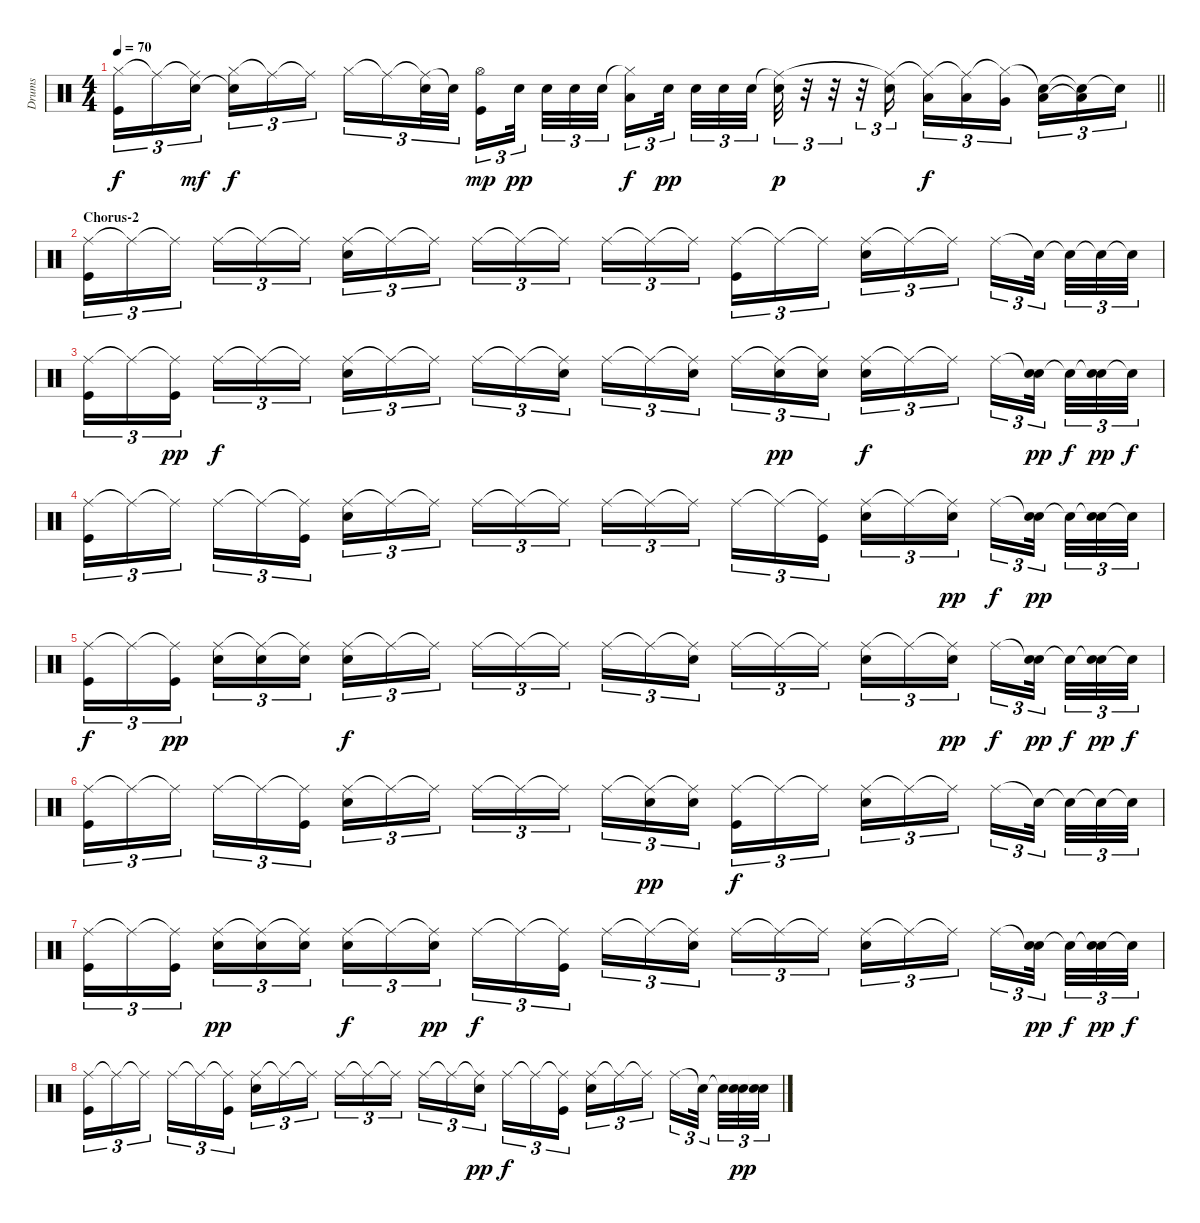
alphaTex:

\track ("Drums" "Drums") {instrument percussion}
\staff {score}
\articulation defaults
\ts (4 4)
\tempo 70
\clef neutral
\barLineRight lightlight
\ks c
("Hi-Hat (closed)" "Kick (hit)").16{tu (3 2) dy f} "Ride (middle)"{t}.16{tu (3 2)} ("Ride (middle)"{t} "Electric Snare (hit)").16{tu (3 2) dy mf} ("Hi-Hat (closed)" "Electric Snare (hit)"{t}).16{tu (3 2) dy f} "Ride (middle)"{t}.16{tu (3 2)} "Ride (middle)"{t}.16{tu (3 2)} "Hi-Hat (closed)".16{tu (3 2)} "Ride (middle)"{t}.16{tu (3 2)} ("Ride (middle)"{t} "Electric Snare (hit)").32{tu (3 2)} "Electric Snare (hit)"{t}.32{tu (3 2)} ("Hi-Hat (open)" "Kick (hit)").16{tu (3 2) dy mp} "Electric Snare (hit)".32{tu (3 2) dy pp} "Electric Snare (hit)".32{tu (3 2)} "Electric Snare (hit)".32{tu (3 2)} "Electric Snare (hit)".32{tu (3 2)} ("Hi-Hat (closed)"{t} "Low Tom (hit)").16{tu (3 2) dy f} "Electric Snare (hit)".32{tu (3 2) dy pp} "Electric Snare (hit)".32{tu (3 2)} "Electric Snare (hit)".32{tu (3 2)} "Electric Snare (hit)".32{tu (3 2)} ("Ride (middle)"{t} "Electric Snare (hit)").32{tu (3 2) dy p} r.32{tu (3 2)} r.32{tu (3 2)} r.32{tu (3 2)} ("Ride (middle)"{t} "Electric Snare (hit)").16{tu (3 2)} ("Ride (middle)"{t} "Low Tom (hit)").16{tu (3 2) dy f} ("Ride (middle)"{t} "Low Tom (hit)").16{tu (3 2)} ("Hi-Hat (closed)"{t} "Very Low Tom (hit)").16{tu (3 2)} ("Snare (hit)"{t} "Low Floor Tom (hit)").16{tu (3 2)} ("Snare (hit)"{t} "Low Tom (hit)"{t}).16{tu (3 2)} "Snare (hit)"{t}.16{tu (3 2)} |
\section ("" "Chorus-2")
("Ride (middle)" "Kick (hit)").16{tu (3 2)} "Ride (middle)"{t}.16{tu (3 2)} "Ride (middle)"{t}.16{tu (3 2)} "Ride (middle)".16{tu (3 2)} "Ride (middle)"{t}.16{tu (3 2)} "Ride (middle)"{t}.16{tu (3 2)} ("Ride (middle)" "Electric Snare (hit)").16{tu (3 2)} "Ride (middle)"{t}.16{tu (3 2)} "Ride (middle)"{t}.16{tu (3 2)} "Ride (middle)".16{tu (3 2)} "Ride (middle)"{t}.16{tu (3 2)} "Ride (middle)"{t}.16{tu (3 2)} "Ride (middle)".16{tu (3 2)} "Ride (middle)"{t}.16{tu (3 2)} "Ride (middle)"{t}.16{tu (3 2)} ("Ride (middle)" "Kick (hit)").16{tu (3 2)} "Ride (middle)"{t}.16{tu (3 2)} "Ride (middle)"{t}.16{tu (3 2)} ("Ride (middle)" "Electric Snare (hit)").16{tu (3 2)} "Ride (middle)"{t}.16{tu (3 2)} "Ride (middle)"{t}.16{tu (3 2)} "Ride (middle)".16{tu (3 2)} "Snare (hit)"{t}.32{tu (3 2)} "Snare (hit)"{t}.32{tu (3 2)} "Snare (hit)"{t}.32{tu (3 2)} "Snare (hit)"{t}.32{tu (3 2)} |
("Ride (middle)" "Kick (hit)").16{tu (3 2)} "Ride (middle)"{t}.16{tu (3 2)} ("Ride (middle)"{t} "Kick (hit)").16{tu (3 2) dy pp} "Ride (middle)".16{tu (3 2) dy f} "Ride (middle)"{t}.16{tu (3 2)} "Ride (middle)"{t}.16{tu (3 2)} ("Ride (middle)" "Electric Snare (hit)").16{tu (3 2)} "Ride (middle)"{t}.16{tu (3 2)} "Ride (middle)"{t}.16{tu (3 2)} "Ride (middle)".16{tu (3 2)} "Ride (middle)"{t}.16{tu (3 2)} ("Ride (middle)"{t} "Electric Snare (hit)").16{tu (3 2)} "Ride (middle)".16{tu (3 2)} "Ride (middle)"{t}.16{tu (3 2)} ("Ride (middle)"{t} "Electric Snare (hit)").16{tu (3 2)} "Ride (middle)".16{tu (3 2)} ("Ride (middle)"{t} "Electric Snare (hit)").16{tu (3 2) dy pp} ("Ride (middle)"{t} "Electric Snare (hit)").16{tu (3 2)} ("Ride (middle)" "Electric Snare (hit)").16{tu (3 2) dy f} "Ride (middle)"{t}.16{tu (3 2)} "Ride (middle)"{t}.16{tu (3 2)} "Ride (middle)".16{tu (3 2)} ("Snare (hit)"{t} "Electric Snare (hit)").32{tu (3 2) dy pp} "Snare (hit)"{t}.32{tu (3 2) dy f} ("Snare (hit)"{t} "Electric Snare (hit)").32{tu (3 2) dy pp} "Snare (hit)"{t}.32{tu (3 2) dy f} |
("Ride (middle)" "Kick (hit)").16{tu (3 2)} "Ride (middle)"{t}.16{tu (3 2)} "Ride (middle)"{t}.16{tu (3 2)} "Ride (middle)".16{tu (3 2)} "Ride (middle)"{t}.16{tu (3 2)} ("Ride (middle)"{t} "Kick (hit)").16{tu (3 2)} ("Ride (middle)" "Electric Snare (hit)").16{tu (3 2)} "Ride (middle)"{t}.16{tu (3 2)} "Ride (middle)"{t}.16{tu (3 2)} "Ride (middle)".16{tu (3 2)} "Ride (middle)"{t}.16{tu (3 2)} "Ride (middle)"{t}.16{tu (3 2)} "Ride (middle)".16{tu (3 2)} "Ride (middle)"{t}.16{tu (3 2)} "Ride (middle)"{t}.16{tu (3 2)} "Ride (middle)".16{tu (3 2)} "Ride (middle)"{t}.16{tu (3 2)} ("Ride (middle)"{t} "Kick (hit)").16{tu (3 2)} ("Ride (middle)" "Electric Snare (hit)").16{tu (3 2)} "Ride (middle)"{t}.16{tu (3 2)} ("Ride (middle)"{t} "Electric Snare (hit)").16{tu (3 2) dy pp} "Ride (middle)".16{tu (3 2) dy f} ("Snare (hit)"{t} "Electric Snare (hit)").32{tu (3 2) dy pp} "Snare (hit)"{t}.32{tu (3 2)} ("Snare (hit)"{t} "Electric Snare (hit)").32{tu (3 2)} "Snare (hit)"{t}.32{tu (3 2)} |
("Ride (middle)" "Kick (hit)").16{tu (3 2) dy f} "Ride (middle)"{t}.16{tu (3 2)} ("Ride (middle)"{t} "Kick (hit)").16{tu (3 2) dy pp} ("Ride (middle)" "Electric Snare (hit)").16{tu (3 2)} ("Ride (middle)"{t} "Electric Snare (hit)").16{tu (3 2)} ("Ride (middle)"{t} "Electric Snare (hit)").16{tu (3 2)} ("Ride (middle)" "Electric Snare (hit)").16{tu (3 2) dy f} "Ride (middle)"{t}.16{tu (3 2)} "Ride (middle)"{t}.16{tu (3 2)} "Ride (middle)".16{tu (3 2)} "Ride (middle)"{t}.16{tu (3 2)} "Ride (middle)"{t}.16{tu (3 2)} "Ride (middle)".16{tu (3 2)} "Ride (middle)"{t}.16{tu (3 2)} ("Ride (middle)"{t} "Electric Snare (hit)").16{tu (3 2)} "Ride (middle)".16{tu (3 2)} "Ride (middle)"{t}.16{tu (3 2)} "Ride (middle)"{t}.16{tu (3 2)} ("Ride (middle)" "Electric Snare (hit)").16{tu (3 2)} "Ride (middle)"{t}.16{tu (3 2)} ("Ride (middle)"{t} "Electric Snare (hit)").16{tu (3 2) dy pp} "Ride (middle)".16{tu (3 2) dy f} ("Snare (hit)"{t} "Electric Snare (hit)").32{tu (3 2) dy pp} "Snare (hit)"{t}.32{tu (3 2) dy f} ("Snare (hit)"{t} "Electric Snare (hit)").32{tu (3 2) dy pp} "Snare (hit)"{t}.32{tu (3 2) dy f} |
("Ride (middle)" "Kick (hit)").16{tu (3 2)} "Ride (middle)"{t}.16{tu (3 2)} "Ride (middle)"{t}.16{tu (3 2)} "Ride (middle)".16{tu (3 2)} "Ride (middle)"{t}.16{tu (3 2)} ("Ride (middle)"{t} "Kick (hit)").16{tu (3 2)} ("Ride (middle)" "Electric Snare (hit)").16{tu (3 2)} "Ride (middle)"{t}.16{tu (3 2)} "Ride (middle)"{t}.16{tu (3 2)} "Ride (middle)".16{tu (3 2)} "Ride (middle)"{t}.16{tu (3 2)} "Ride (middle)"{t}.16{tu (3 2)} "Ride (middle)".16{tu (3 2)} ("Ride (middle)"{t} "Electric Snare (hit)").16{tu (3 2) dy pp} ("Ride (middle)"{t} "Electric Snare (hit)").16{tu (3 2)} ("Ride (middle)" "Kick (hit)").16{tu (3 2) dy f} "Ride (middle)"{t}.16{tu (3 2)} "Ride (middle)"{t}.16{tu (3 2)} ("Ride (middle)" "Electric Snare (hit)").16{tu (3 2)} "Ride (middle)"{t}.16{tu (3 2)} "Ride (middle)"{t}.16{tu (3 2)} "Ride (middle)".16{tu (3 2)} "Snare (hit)"{t}.32{tu (3 2)} "Snare (hit)"{t}.32{tu (3 2)} "Snare (hit)"{t}.32{tu (3 2)} "Snare (hit)"{t}.32{tu (3 2)} |
("Ride (middle)" "Kick (hit)").16{tu (3 2)} "Ride (middle)"{t}.16{tu (3 2)} ("Ride (middle)"{t} "Kick (hit)").16{tu (3 2)} ("Ride (middle)" "Electric Snare (hit)").16{tu (3 2) dy pp} ("Ride (middle)"{t} "Electric Snare (hit)").16{tu (3 2)} ("Ride (middle)"{t} "Electric Snare (hit)").16{tu (3 2)} ("Ride (middle)" "Electric Snare (hit)").16{tu (3 2) dy f} "Ride (middle)"{t}.16{tu (3 2)} ("Ride (middle)"{t} "Electric Snare (hit)").16{tu (3 2) dy pp} "Ride (middle)".16{tu (3 2) dy f} "Ride (middle)"{t}.16{tu (3 2)} ("Ride (middle)"{t} "Kick (hit)").16{tu (3 2)} "Ride (middle)".16{tu (3 2)} "Ride (middle)"{t}.16{tu (3 2)} ("Ride (middle)"{t} "Electric Snare (hit)").16{tu (3 2)} "Ride (middle)".16{tu (3 2)} "Ride (middle)"{t}.16{tu (3 2)} "Ride (middle)"{t}.16{tu (3 2)} ("Ride (middle)" "Electric Snare (hit)").16{tu (3 2)} "Ride (middle)"{t}.16{tu (3 2)} "Ride (middle)"{t}.16{tu (3 2)} "Ride (middle)".16{tu (3 2)} ("Snare (hit)"{t} "Electric Snare (hit)").32{tu (3 2) dy pp} "Snare (hit)"{t}.32{tu (3 2) dy f} ("Snare (hit)"{t} "Electric Snare (hit)").32{tu (3 2) dy pp} "Snare (hit)"{t}.32{tu (3 2) dy f} |
("Ride (middle)" "Kick (hit)").16{tu (3 2)} "Ride (middle)"{t}.16{tu (3 2)} "Ride (middle)"{t}.16{tu (3 2)} "Ride (middle)".16{tu (3 2)} "Ride (middle)"{t}.16{tu (3 2)} ("Ride (middle)"{t} "Kick (hit)").16{tu (3 2)} ("Ride (middle)" "Electric Snare (hit)").16{tu (3 2)} "Ride (middle)"{t}.16{tu (3 2)} "Ride (middle)"{t}.16{tu (3 2)} "Ride (middle)".16{tu (3 2)} "Ride (middle)"{t}.16{tu (3 2)} "Ride (middle)"{t}.16{tu (3 2)} "Ride (middle)".16{tu (3 2)} "Ride (middle)"{t}.16{tu (3 2)} ("Ride (middle)"{t} "Electric Snare (hit)").16{tu (3 2) dy pp} "Ride (middle)".16{tu (3 2) dy f} "Ride (middle)"{t}.16{tu (3 2)} ("Ride (middle)"{t} "Kick (hit)").16{tu (3 2)} ("Ride (middle)" "Electric Snare (hit)").16{tu (3 2)} "Ride (middle)"{t}.16{tu (3 2)} "Ride (middle)"{t}.16{tu (3 2)} "Ride (middle)".16{tu (3 2)} "Snare (hit)"{t}.32{tu (3 2)} "Snare (hit)"{t}.32{tu (3 2)} ("Snare (hit)"{t} "Electric Snare (hit)").32{tu (3 2) dy pp} ("Snare (hit)"{t} "Electric Snare (hit)").32{tu (3 2)}
